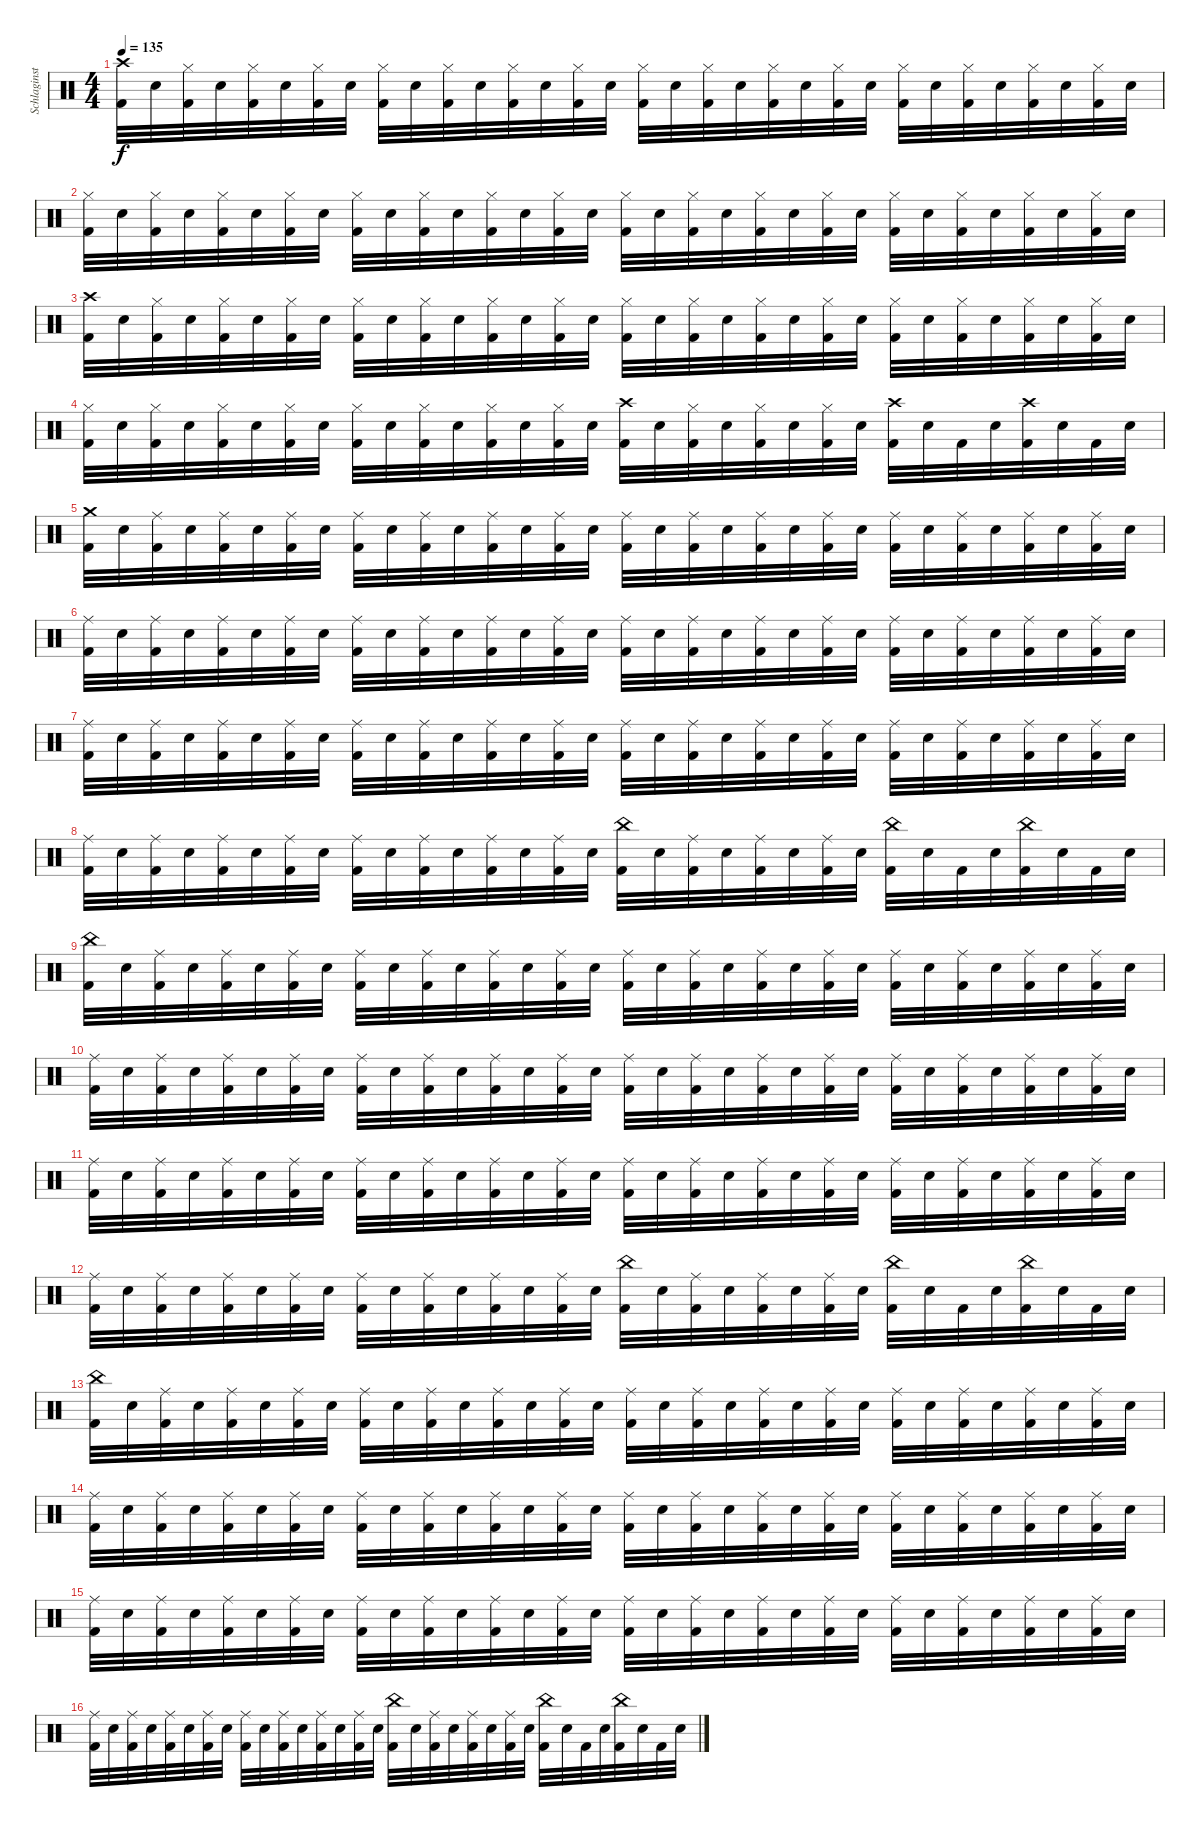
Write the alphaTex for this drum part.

\track ("Schlaginstrumente - Auswahl" "Schlaginst") {instrument percussion}
\staff {score}
\articulation defaults
\ts (4 4)
\tempo 135
\clef neutral
\ks c
("Crash high (hit)" "Kick (hit) 2").32{dy f} "Electric Snare (hit)".32 ("Hi-Hat (closed)" "Kick (hit) 2").32 "Electric Snare (hit)".32 ("Hi-Hat (closed)" "Kick (hit) 2").32 "Electric Snare (hit)".32 ("Hi-Hat (closed)" "Kick (hit) 2").32 "Electric Snare (hit)".32 ("Hi-Hat (closed)" "Kick (hit) 2").32 "Electric Snare (hit)".32 ("Hi-Hat (closed)" "Kick (hit) 2").32 "Electric Snare (hit)".32 ("Hi-Hat (closed)" "Kick (hit) 2").32 "Electric Snare (hit)".32 ("Hi-Hat (closed)" "Kick (hit) 2").32 "Electric Snare (hit)".32 ("Hi-Hat (closed)" "Kick (hit) 2").32 "Electric Snare (hit)".32 ("Hi-Hat (closed)" "Kick (hit) 2").32 "Electric Snare (hit)".32 ("Hi-Hat (closed)" "Kick (hit) 2").32 "Electric Snare (hit)".32 ("Hi-Hat (closed)" "Kick (hit) 2").32 "Electric Snare (hit)".32 ("Hi-Hat (closed)" "Kick (hit) 2").32 "Electric Snare (hit)".32 ("Hi-Hat (closed)" "Kick (hit) 2").32 "Electric Snare (hit)".32 ("Hi-Hat (closed)" "Kick (hit) 2").32 "Electric Snare (hit)".32 ("Hi-Hat (closed)" "Kick (hit) 2").32 "Electric Snare (hit)".32 |
("Hi-Hat (closed)" "Kick (hit) 2").32 "Electric Snare (hit)".32 ("Hi-Hat (closed)" "Kick (hit) 2").32 "Electric Snare (hit)".32 ("Hi-Hat (closed)" "Kick (hit) 2").32 "Electric Snare (hit)".32 ("Hi-Hat (closed)" "Kick (hit) 2").32 "Electric Snare (hit)".32 ("Hi-Hat (closed)" "Kick (hit) 2").32 "Electric Snare (hit)".32 ("Hi-Hat (closed)" "Kick (hit) 2").32 "Electric Snare (hit)".32 ("Hi-Hat (closed)" "Kick (hit) 2").32 "Electric Snare (hit)".32 ("Hi-Hat (closed)" "Kick (hit) 2").32 "Electric Snare (hit)".32 ("Hi-Hat (closed)" "Kick (hit) 2").32 "Electric Snare (hit)".32 ("Hi-Hat (closed)" "Kick (hit) 2").32 "Electric Snare (hit)".32 ("Hi-Hat (closed)" "Kick (hit) 2").32 "Electric Snare (hit)".32 ("Hi-Hat (closed)" "Kick (hit) 2").32 "Electric Snare (hit)".32 ("Hi-Hat (closed)" "Kick (hit) 2").32 "Electric Snare (hit)".32 ("Hi-Hat (closed)" "Kick (hit) 2").32 "Electric Snare (hit)".32 ("Hi-Hat (closed)" "Kick (hit) 2").32 "Electric Snare (hit)".32 ("Hi-Hat (closed)" "Kick (hit) 2").32 "Electric Snare (hit)".32 |
("Crash high (hit)" "Kick (hit) 2").32 "Electric Snare (hit)".32 ("Hi-Hat (closed)" "Kick (hit) 2").32 "Electric Snare (hit)".32 ("Hi-Hat (closed)" "Kick (hit) 2").32 "Electric Snare (hit)".32 ("Hi-Hat (closed)" "Kick (hit) 2").32 "Electric Snare (hit)".32 ("Hi-Hat (closed)" "Kick (hit) 2").32 "Electric Snare (hit)".32 ("Hi-Hat (closed)" "Kick (hit) 2").32 "Electric Snare (hit)".32 ("Hi-Hat (closed)" "Kick (hit) 2").32 "Electric Snare (hit)".32 ("Hi-Hat (closed)" "Kick (hit) 2").32 "Electric Snare (hit)".32 ("Hi-Hat (closed)" "Kick (hit) 2").32 "Electric Snare (hit)".32 ("Hi-Hat (closed)" "Kick (hit) 2").32 "Electric Snare (hit)".32 ("Hi-Hat (closed)" "Kick (hit) 2").32 "Electric Snare (hit)".32 ("Hi-Hat (closed)" "Kick (hit) 2").32 "Electric Snare (hit)".32 ("Hi-Hat (closed)" "Kick (hit) 2").32 "Electric Snare (hit)".32 ("Hi-Hat (closed)" "Kick (hit) 2").32 "Electric Snare (hit)".32 ("Hi-Hat (closed)" "Kick (hit) 2").32 "Electric Snare (hit)".32 ("Hi-Hat (closed)" "Kick (hit) 2").32 "Electric Snare (hit)".32 |
("Hi-Hat (closed)" "Kick (hit) 2").32 "Electric Snare (hit)".32 ("Hi-Hat (closed)" "Kick (hit) 2").32 "Electric Snare (hit)".32 ("Hi-Hat (closed)" "Kick (hit) 2").32 "Electric Snare (hit)".32 ("Hi-Hat (closed)" "Kick (hit) 2").32 "Electric Snare (hit)".32 ("Hi-Hat (closed)" "Kick (hit) 2").32 "Electric Snare (hit)".32 ("Hi-Hat (closed)" "Kick (hit) 2").32 "Electric Snare (hit)".32 ("Hi-Hat (closed)" "Kick (hit) 2").32 "Electric Snare (hit)".32 ("Hi-Hat (closed)" "Kick (hit) 2").32 "Electric Snare (hit)".32 ("Crash high (hit)" "Kick (hit) 2").32 "Electric Snare (hit)".32 ("Hi-Hat (closed)" "Kick (hit) 2").32 "Electric Snare (hit)".32 ("Hi-Hat (closed)" "Kick (hit) 2").32 "Electric Snare (hit)".32 ("Hi-Hat (closed)" "Kick (hit) 2").32 "Electric Snare (hit)".32 ("Crash high (hit)" "Kick (hit) 2").32 "Electric Snare (hit)".32 "Kick (hit) 2".32 "Electric Snare (hit)".32 ("Crash high (hit)" "Kick (hit) 2").32 "Electric Snare (hit)".32 "Kick (hit) 2".32 "Electric Snare (hit)".32 |
("Crash medium (hit)" "Kick (hit) 2").32 "Electric Snare (hit)".32 ("Ride (middle)" "Kick (hit) 2").32 "Electric Snare (hit)".32 ("Ride (middle)" "Kick (hit) 2").32 "Electric Snare (hit)".32 ("Ride (middle)" "Kick (hit) 2").32 "Electric Snare (hit)".32 ("Ride (middle)" "Kick (hit) 2").32 "Electric Snare (hit)".32 ("Ride (middle)" "Kick (hit) 2").32 "Electric Snare (hit)".32 ("Ride (middle)" "Kick (hit) 2").32 "Electric Snare (hit)".32 ("Ride (middle)" "Kick (hit) 2").32 "Electric Snare (hit)".32 ("Ride (middle)" "Kick (hit) 2").32 "Electric Snare (hit)".32 ("Ride (middle)" "Kick (hit) 2").32 "Electric Snare (hit)".32 ("Ride (middle)" "Kick (hit) 2").32 "Electric Snare (hit)".32 ("Ride (middle)" "Kick (hit) 2").32 "Electric Snare (hit)".32 ("Ride (middle)" "Kick (hit) 2").32 "Electric Snare (hit)".32 ("Ride (middle)" "Kick (hit) 2").32 "Electric Snare (hit)".32 ("Ride (middle)" "Kick (hit) 2").32 "Electric Snare (hit)".32 ("Ride (middle)" "Kick (hit) 2").32 "Electric Snare (hit)".32 |
("Ride (middle)" "Kick (hit) 2").32 "Electric Snare (hit)".32 ("Ride (middle)" "Kick (hit) 2").32 "Electric Snare (hit)".32 ("Ride (middle)" "Kick (hit) 2").32 "Electric Snare (hit)".32 ("Ride (middle)" "Kick (hit) 2").32 "Electric Snare (hit)".32 ("Ride (middle)" "Kick (hit) 2").32 "Electric Snare (hit)".32 ("Ride (middle)" "Kick (hit) 2").32 "Electric Snare (hit)".32 ("Ride (middle)" "Kick (hit) 2").32 "Electric Snare (hit)".32 ("Ride (middle)" "Kick (hit) 2").32 "Electric Snare (hit)".32 ("Ride (middle)" "Kick (hit) 2").32 "Electric Snare (hit)".32 ("Ride (middle)" "Kick (hit) 2").32 "Electric Snare (hit)".32 ("Ride (middle)" "Kick (hit) 2").32 "Electric Snare (hit)".32 ("Ride (middle)" "Kick (hit) 2").32 "Electric Snare (hit)".32 ("Ride (middle)" "Kick (hit) 2").32 "Electric Snare (hit)".32 ("Ride (middle)" "Kick (hit) 2").32 "Electric Snare (hit)".32 ("Ride (middle)" "Kick (hit) 2").32 "Electric Snare (hit)".32 ("Ride (middle)" "Kick (hit) 2").32 "Electric Snare (hit)".32 |
("Ride (middle)" "Kick (hit) 2").32 "Electric Snare (hit)".32 ("Ride (middle)" "Kick (hit) 2").32 "Electric Snare (hit)".32 ("Ride (middle)" "Kick (hit) 2").32 "Electric Snare (hit)".32 ("Ride (middle)" "Kick (hit) 2").32 "Electric Snare (hit)".32 ("Ride (middle)" "Kick (hit) 2").32 "Electric Snare (hit)".32 ("Ride (middle)" "Kick (hit) 2").32 "Electric Snare (hit)".32 ("Ride (middle)" "Kick (hit) 2").32 "Electric Snare (hit)".32 ("Ride (middle)" "Kick (hit) 2").32 "Electric Snare (hit)".32 ("Ride (middle)" "Kick (hit) 2").32 "Electric Snare (hit)".32 ("Ride (middle)" "Kick (hit) 2").32 "Electric Snare (hit)".32 ("Ride (middle)" "Kick (hit) 2").32 "Electric Snare (hit)".32 ("Ride (middle)" "Kick (hit) 2").32 "Electric Snare (hit)".32 ("Ride (middle)" "Kick (hit) 2").32 "Electric Snare (hit)".32 ("Ride (middle)" "Kick (hit) 2").32 "Electric Snare (hit)".32 ("Ride (middle)" "Kick (hit) 2").32 "Electric Snare (hit)".32 ("Ride (middle)" "Kick (hit) 2").32 "Electric Snare (hit)".32 |
("Ride (middle)" "Kick (hit) 2").32 "Electric Snare (hit)".32 ("Ride (middle)" "Kick (hit) 2").32 "Electric Snare (hit)".32 ("Ride (middle)" "Kick (hit) 2").32 "Electric Snare (hit)".32 ("Ride (middle)" "Kick (hit) 2").32 "Electric Snare (hit)".32 ("Ride (middle)" "Kick (hit) 2").32 "Electric Snare (hit)".32 ("Ride (middle)" "Kick (hit) 2").32 "Electric Snare (hit)".32 ("Ride (middle)" "Kick (hit) 2").32 "Electric Snare (hit)".32 ("Ride (middle)" "Kick (hit) 2").32 "Electric Snare (hit)".32 ("China (hit)" "Kick (hit) 2").32 "Electric Snare (hit)".32 ("Ride (middle)" "Kick (hit) 2").32 "Electric Snare (hit)".32 ("Ride (middle)" "Kick (hit) 2").32 "Electric Snare (hit)".32 ("Ride (middle)" "Kick (hit) 2").32 "Electric Snare (hit)".32 ("China (hit)" "Kick (hit) 2").32 "Electric Snare (hit)".32 "Kick (hit) 2".32 "Electric Snare (hit)".32 ("China (hit)" "Kick (hit) 2").32 "Electric Snare (hit)".32 "Kick (hit) 2".32 "Electric Snare (hit)".32 |
("China (hit)" "Kick (hit) 2").32 "Electric Snare (hit)".32 ("Ride (middle)" "Kick (hit) 2").32 "Electric Snare (hit)".32 ("Ride (middle)" "Kick (hit) 2").32 "Electric Snare (hit)".32 ("Ride (middle)" "Kick (hit) 2").32 "Electric Snare (hit)".32 ("Ride (middle)" "Kick (hit) 2").32 "Electric Snare (hit)".32 ("Ride (middle)" "Kick (hit) 2").32 "Electric Snare (hit)".32 ("Ride (middle)" "Kick (hit) 2").32 "Electric Snare (hit)".32 ("Ride (middle)" "Kick (hit) 2").32 "Electric Snare (hit)".32 ("Ride (middle)" "Kick (hit) 2").32 "Electric Snare (hit)".32 ("Ride (middle)" "Kick (hit) 2").32 "Electric Snare (hit)".32 ("Ride (middle)" "Kick (hit) 2").32 "Electric Snare (hit)".32 ("Ride (middle)" "Kick (hit) 2").32 "Electric Snare (hit)".32 ("Ride (middle)" "Kick (hit) 2").32 "Electric Snare (hit)".32 ("Ride (middle)" "Kick (hit) 2").32 "Electric Snare (hit)".32 ("Ride (middle)" "Kick (hit) 2").32 "Electric Snare (hit)".32 ("Ride (middle)" "Kick (hit) 2").32 "Electric Snare (hit)".32 |
("Ride (middle)" "Kick (hit) 2").32 "Electric Snare (hit)".32 ("Ride (middle)" "Kick (hit) 2").32 "Electric Snare (hit)".32 ("Ride (middle)" "Kick (hit) 2").32 "Electric Snare (hit)".32 ("Ride (middle)" "Kick (hit) 2").32 "Electric Snare (hit)".32 ("Ride (middle)" "Kick (hit) 2").32 "Electric Snare (hit)".32 ("Ride (middle)" "Kick (hit) 2").32 "Electric Snare (hit)".32 ("Ride (middle)" "Kick (hit) 2").32 "Electric Snare (hit)".32 ("Ride (middle)" "Kick (hit) 2").32 "Electric Snare (hit)".32 ("Ride (middle)" "Kick (hit) 2").32 "Electric Snare (hit)".32 ("Ride (middle)" "Kick (hit) 2").32 "Electric Snare (hit)".32 ("Ride (middle)" "Kick (hit) 2").32 "Electric Snare (hit)".32 ("Ride (middle)" "Kick (hit) 2").32 "Electric Snare (hit)".32 ("Ride (middle)" "Kick (hit) 2").32 "Electric Snare (hit)".32 ("Ride (middle)" "Kick (hit) 2").32 "Electric Snare (hit)".32 ("Ride (middle)" "Kick (hit) 2").32 "Electric Snare (hit)".32 ("Ride (middle)" "Kick (hit) 2").32 "Electric Snare (hit)".32 |
("Ride (middle)" "Kick (hit) 2").32 "Electric Snare (hit)".32 ("Ride (middle)" "Kick (hit) 2").32 "Electric Snare (hit)".32 ("Ride (middle)" "Kick (hit) 2").32 "Electric Snare (hit)".32 ("Ride (middle)" "Kick (hit) 2").32 "Electric Snare (hit)".32 ("Ride (middle)" "Kick (hit) 2").32 "Electric Snare (hit)".32 ("Ride (middle)" "Kick (hit) 2").32 "Electric Snare (hit)".32 ("Ride (middle)" "Kick (hit) 2").32 "Electric Snare (hit)".32 ("Ride (middle)" "Kick (hit) 2").32 "Electric Snare (hit)".32 ("Ride (middle)" "Kick (hit) 2").32 "Electric Snare (hit)".32 ("Ride (middle)" "Kick (hit) 2").32 "Electric Snare (hit)".32 ("Ride (middle)" "Kick (hit) 2").32 "Electric Snare (hit)".32 ("Ride (middle)" "Kick (hit) 2").32 "Electric Snare (hit)".32 ("Ride (middle)" "Kick (hit) 2").32 "Electric Snare (hit)".32 ("Ride (middle)" "Kick (hit) 2").32 "Electric Snare (hit)".32 ("Ride (middle)" "Kick (hit) 2").32 "Electric Snare (hit)".32 ("Ride (middle)" "Kick (hit) 2").32 "Electric Snare (hit)".32 |
("Ride (middle)" "Kick (hit) 2").32 "Electric Snare (hit)".32 ("Ride (middle)" "Kick (hit) 2").32 "Electric Snare (hit)".32 ("Ride (middle)" "Kick (hit) 2").32 "Electric Snare (hit)".32 ("Ride (middle)" "Kick (hit) 2").32 "Electric Snare (hit)".32 ("Ride (middle)" "Kick (hit) 2").32 "Electric Snare (hit)".32 ("Ride (middle)" "Kick (hit) 2").32 "Electric Snare (hit)".32 ("Ride (middle)" "Kick (hit) 2").32 "Electric Snare (hit)".32 ("Ride (middle)" "Kick (hit) 2").32 "Electric Snare (hit)".32 ("China (hit)" "Kick (hit) 2").32 "Electric Snare (hit)".32 ("Ride (middle)" "Kick (hit) 2").32 "Electric Snare (hit)".32 ("Ride (middle)" "Kick (hit) 2").32 "Electric Snare (hit)".32 ("Ride (middle)" "Kick (hit) 2").32 "Electric Snare (hit)".32 ("China (hit)" "Kick (hit) 2").32 "Electric Snare (hit)".32 "Kick (hit) 2".32 "Electric Snare (hit)".32 ("China (hit)" "Kick (hit) 2").32 "Electric Snare (hit)".32 "Kick (hit) 2".32 "Electric Snare (hit)".32 |
("China (hit)" "Kick (hit) 2").32 "Electric Snare (hit)".32 ("Ride (middle)" "Kick (hit) 2").32 "Electric Snare (hit)".32 ("Ride (middle)" "Kick (hit) 2").32 "Electric Snare (hit)".32 ("Ride (middle)" "Kick (hit) 2").32 "Electric Snare (hit)".32 ("Ride (middle)" "Kick (hit) 2").32 "Electric Snare (hit)".32 ("Ride (middle)" "Kick (hit) 2").32 "Electric Snare (hit)".32 ("Ride (middle)" "Kick (hit) 2").32 "Electric Snare (hit)".32 ("Ride (middle)" "Kick (hit) 2").32 "Electric Snare (hit)".32 ("Ride (middle)" "Kick (hit) 2").32 "Electric Snare (hit)".32 ("Ride (middle)" "Kick (hit) 2").32 "Electric Snare (hit)".32 ("Ride (middle)" "Kick (hit) 2").32 "Electric Snare (hit)".32 ("Ride (middle)" "Kick (hit) 2").32 "Electric Snare (hit)".32 ("Ride (middle)" "Kick (hit) 2").32 "Electric Snare (hit)".32 ("Ride (middle)" "Kick (hit) 2").32 "Electric Snare (hit)".32 ("Ride (middle)" "Kick (hit) 2").32 "Electric Snare (hit)".32 ("Ride (middle)" "Kick (hit) 2").32 "Electric Snare (hit)".32 |
("Ride (middle)" "Kick (hit) 2").32 "Electric Snare (hit)".32 ("Ride (middle)" "Kick (hit) 2").32 "Electric Snare (hit)".32 ("Ride (middle)" "Kick (hit) 2").32 "Electric Snare (hit)".32 ("Ride (middle)" "Kick (hit) 2").32 "Electric Snare (hit)".32 ("Ride (middle)" "Kick (hit) 2").32 "Electric Snare (hit)".32 ("Ride (middle)" "Kick (hit) 2").32 "Electric Snare (hit)".32 ("Ride (middle)" "Kick (hit) 2").32 "Electric Snare (hit)".32 ("Ride (middle)" "Kick (hit) 2").32 "Electric Snare (hit)".32 ("Ride (middle)" "Kick (hit) 2").32 "Electric Snare (hit)".32 ("Ride (middle)" "Kick (hit) 2").32 "Electric Snare (hit)".32 ("Ride (middle)" "Kick (hit) 2").32 "Electric Snare (hit)".32 ("Ride (middle)" "Kick (hit) 2").32 "Electric Snare (hit)".32 ("Ride (middle)" "Kick (hit) 2").32 "Electric Snare (hit)".32 ("Ride (middle)" "Kick (hit) 2").32 "Electric Snare (hit)".32 ("Ride (middle)" "Kick (hit) 2").32 "Electric Snare (hit)".32 ("Ride (middle)" "Kick (hit) 2").32 "Electric Snare (hit)".32 |
("Ride (middle)" "Kick (hit) 2").32 "Electric Snare (hit)".32 ("Ride (middle)" "Kick (hit) 2").32 "Electric Snare (hit)".32 ("Ride (middle)" "Kick (hit) 2").32 "Electric Snare (hit)".32 ("Ride (middle)" "Kick (hit) 2").32 "Electric Snare (hit)".32 ("Ride (middle)" "Kick (hit) 2").32 "Electric Snare (hit)".32 ("Ride (middle)" "Kick (hit) 2").32 "Electric Snare (hit)".32 ("Ride (middle)" "Kick (hit) 2").32 "Electric Snare (hit)".32 ("Ride (middle)" "Kick (hit) 2").32 "Electric Snare (hit)".32 ("Ride (middle)" "Kick (hit) 2").32 "Electric Snare (hit)".32 ("Ride (middle)" "Kick (hit) 2").32 "Electric Snare (hit)".32 ("Ride (middle)" "Kick (hit) 2").32 "Electric Snare (hit)".32 ("Ride (middle)" "Kick (hit) 2").32 "Electric Snare (hit)".32 ("Ride (middle)" "Kick (hit) 2").32 "Electric Snare (hit)".32 ("Ride (middle)" "Kick (hit) 2").32 "Electric Snare (hit)".32 ("Ride (middle)" "Kick (hit) 2").32 "Electric Snare (hit)".32 ("Ride (middle)" "Kick (hit) 2").32 "Electric Snare (hit)".32 |
("Ride (middle)" "Kick (hit) 2").32 "Electric Snare (hit)".32 ("Ride (middle)" "Kick (hit) 2").32 "Electric Snare (hit)".32 ("Ride (middle)" "Kick (hit) 2").32 "Electric Snare (hit)".32 ("Ride (middle)" "Kick (hit) 2").32 "Electric Snare (hit)".32 ("Ride (middle)" "Kick (hit) 2").32 "Electric Snare (hit)".32 ("Ride (middle)" "Kick (hit) 2").32 "Electric Snare (hit)".32 ("Ride (middle)" "Kick (hit) 2").32 "Electric Snare (hit)".32 ("Ride (middle)" "Kick (hit) 2").32 "Electric Snare (hit)".32 ("China (hit)" "Kick (hit) 2").32 "Electric Snare (hit)".32 ("Ride (middle)" "Kick (hit) 2").32 "Electric Snare (hit)".32 ("Ride (middle)" "Kick (hit) 2").32 "Electric Snare (hit)".32 ("Ride (middle)" "Kick (hit) 2").32 "Electric Snare (hit)".32 ("China (hit)" "Kick (hit) 2").32 "Electric Snare (hit)".32 "Kick (hit) 2".32 "Electric Snare (hit)".32 ("China (hit)" "Kick (hit) 2").32 "Electric Snare (hit)".32 "Kick (hit) 2".32 "Electric Snare (hit)".32
